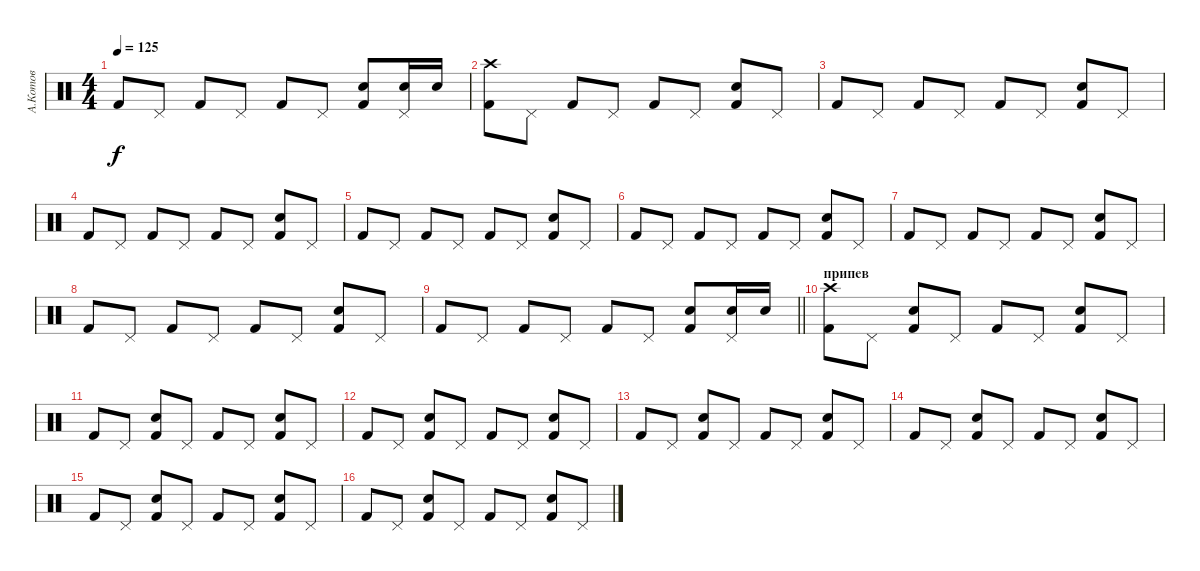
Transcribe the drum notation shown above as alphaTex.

\track ("А.Котов" "А.Котов") {instrument percussion}
\staff {score}
\articulation defaults
\ts (4 4)
\tempo 125
\clef neutral
\ks c "Kick (hit) 2".8{dy f} "Pedal Hi-Hat (hit)".8 "Kick (hit) 2".8 "Pedal Hi-Hat (hit)".8 "Kick (hit) 2".8 "Pedal Hi-Hat (hit)".8
("Kick (hit) 2" "Snare (hit) 2").8 ("Pedal Hi-Hat (hit)" "Snare (hit) 2").16 "Snare (hit) 2".16 |
("Kick (hit) 2" "Crash high (hit)").8 "Pedal Hi-Hat (hit)".8 "Kick (hit) 2".8 "Pedal Hi-Hat (hit)".8 "Kick (hit) 2".8 "Pedal Hi-Hat (hit)".8 ("Kick (hit) 2" "Snare (hit) 2").8 "Pedal Hi-Hat (hit)".8 |
"Kick (hit) 2".8 "Pedal Hi-Hat (hit)".8 "Kick (hit) 2".8 "Pedal Hi-Hat (hit)".8 "Kick (hit) 2".8 "Pedal Hi-Hat (hit)".8 ("Kick (hit) 2" "Snare (hit) 2").8 "Pedal Hi-Hat (hit)".8 |
"Kick (hit) 2".8 "Pedal Hi-Hat (hit)".8 "Kick (hit) 2".8 "Pedal Hi-Hat (hit)".8 "Kick (hit) 2".8 "Pedal Hi-Hat (hit)".8 ("Kick (hit) 2" "Snare (hit) 2").8 "Pedal Hi-Hat (hit)".8 |
"Kick (hit) 2".8 "Pedal Hi-Hat (hit)".8 "Kick (hit) 2".8 "Pedal Hi-Hat (hit)".8 "Kick (hit) 2".8 "Pedal Hi-Hat (hit)".8 ("Kick (hit) 2" "Snare (hit) 2").8 "Pedal Hi-Hat (hit)".8 |
"Kick (hit) 2".8 "Pedal Hi-Hat (hit)".8 "Kick (hit) 2".8 "Pedal Hi-Hat (hit)".8 "Kick (hit) 2".8 "Pedal Hi-Hat (hit)".8 ("Kick (hit) 2" "Snare (hit) 2").8 "Pedal Hi-Hat (hit)".8 |
"Kick (hit) 2".8 "Pedal Hi-Hat (hit)".8 "Kick (hit) 2".8 "Pedal Hi-Hat (hit)".8 "Kick (hit) 2".8 "Pedal Hi-Hat (hit)".8 ("Kick (hit) 2" "Snare (hit) 2").8 "Pedal Hi-Hat (hit)".8 |
"Kick (hit) 2".8 "Pedal Hi-Hat (hit)".8 "Kick (hit) 2".8 "Pedal Hi-Hat (hit)".8 "Kick (hit) 2".8 "Pedal Hi-Hat (hit)".8 ("Kick (hit) 2" "Snare (hit) 2").8 "Pedal Hi-Hat (hit)".8 |
\barLineRight lightlight "Kick (hit) 2".8 "Pedal Hi-Hat (hit)".8 "Kick (hit) 2".8 "Pedal Hi-Hat (hit)".8 "Kick (hit) 2".8 "Pedal Hi-Hat (hit)".8
("Kick (hit) 2" "Snare (hit) 2").8 ("Pedal Hi-Hat (hit)" "Snare (hit) 2").16 "Snare (hit) 2".16 |
\section ("" "припев")
("Kick (hit) 2" "Crash high (hit)").8 "Pedal Hi-Hat (hit)".8 ("Kick (hit) 2" "Snare (hit) 2").8 "Pedal Hi-Hat (hit)".8 "Kick (hit) 2".8 "Pedal Hi-Hat (hit)".8 ("Kick (hit) 2" "Snare (hit) 2").8 "Pedal Hi-Hat (hit)".8 |
"Kick (hit) 2".8 "Pedal Hi-Hat (hit)".8 ("Kick (hit) 2" "Snare (hit) 2").8 "Pedal Hi-Hat (hit)".8 "Kick (hit) 2".8 "Pedal Hi-Hat (hit)".8 ("Kick (hit) 2" "Snare (hit) 2").8 "Pedal Hi-Hat (hit)".8 |
"Kick (hit) 2".8 "Pedal Hi-Hat (hit)".8 ("Kick (hit) 2" "Snare (hit) 2").8 "Pedal Hi-Hat (hit)".8 "Kick (hit) 2".8 "Pedal Hi-Hat (hit)".8 ("Kick (hit) 2" "Snare (hit) 2").8 "Pedal Hi-Hat (hit)".8 |
"Kick (hit) 2".8 "Pedal Hi-Hat (hit)".8 ("Kick (hit) 2" "Snare (hit) 2").8 "Pedal Hi-Hat (hit)".8 "Kick (hit) 2".8 "Pedal Hi-Hat (hit)".8 ("Kick (hit) 2" "Snare (hit) 2").8 "Pedal Hi-Hat (hit)".8 |
"Kick (hit) 2".8 "Pedal Hi-Hat (hit)".8 ("Kick (hit) 2" "Snare (hit) 2").8 "Pedal Hi-Hat (hit)".8 "Kick (hit) 2".8 "Pedal Hi-Hat (hit)".8 ("Kick (hit) 2" "Snare (hit) 2").8 "Pedal Hi-Hat (hit)".8 |
"Kick (hit) 2".8 "Pedal Hi-Hat (hit)".8 ("Kick (hit) 2" "Snare (hit) 2").8 "Pedal Hi-Hat (hit)".8 "Kick (hit) 2".8 "Pedal Hi-Hat (hit)".8 ("Kick (hit) 2" "Snare (hit) 2").8 "Pedal Hi-Hat (hit)".8 |
"Kick (hit) 2".8 "Pedal Hi-Hat (hit)".8 ("Kick (hit) 2" "Snare (hit) 2").8 "Pedal Hi-Hat (hit)".8 "Kick (hit) 2".8 "Pedal Hi-Hat (hit)".8 ("Kick (hit) 2" "Snare (hit) 2").8 "Pedal Hi-Hat (hit)".8
